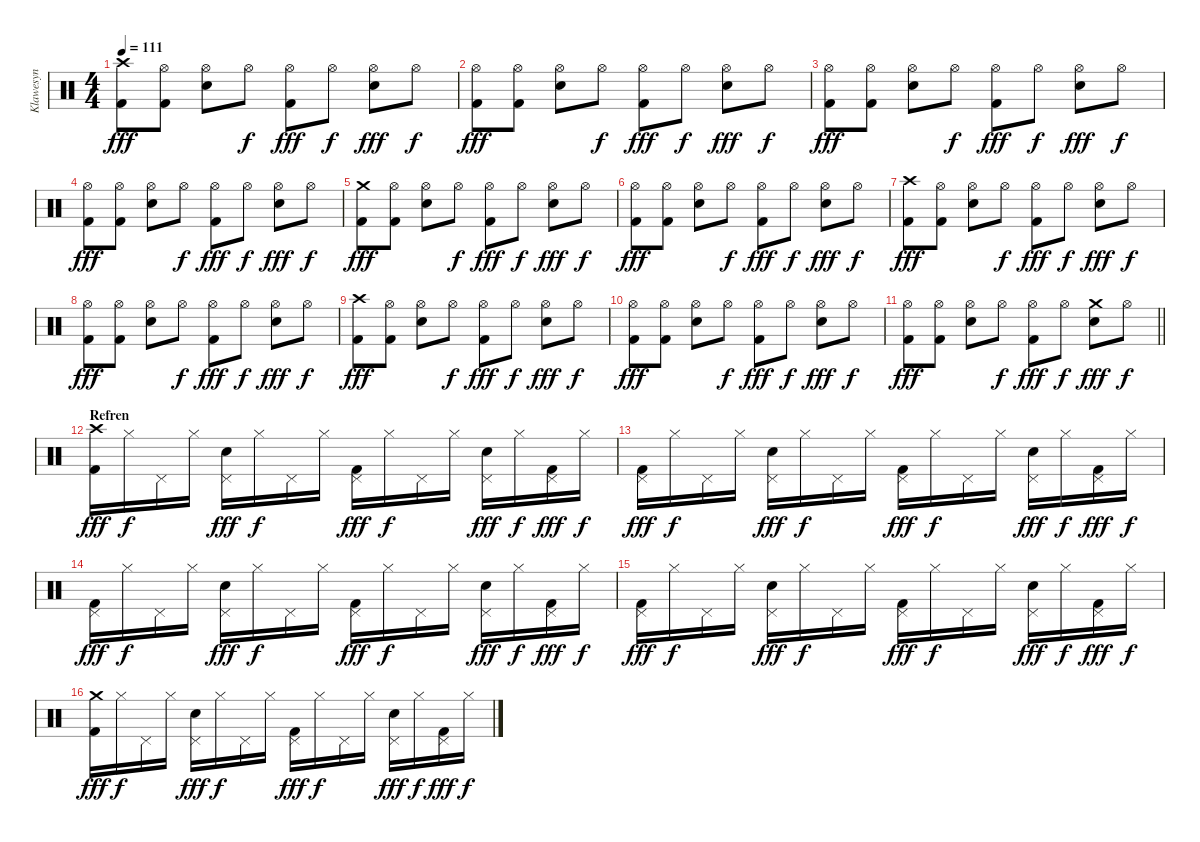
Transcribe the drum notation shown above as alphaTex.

\track ("Klawesyn" "Klawesyn") {instrument percussion}
\staff {score}
\articulation defaults
\ts (4 4)
\tempo 111
\clef neutral
\ks c
("Crash high (hit)" "Kick (hit) 2").8{dy fff} ("Hi-Hat (open)" "Kick (hit) 2").8 ("Hi-Hat (open)" "Snare (hit) 2").8 "Hi-Hat (open)".8{dy f} ("Hi-Hat (open)" "Kick (hit) 2").8{dy fff} "Hi-Hat (open)".8{dy f} ("Hi-Hat (open)" "Snare (hit) 2").8{dy fff} "Hi-Hat (open)".8{dy f} |
("Hi-Hat (open)" "Kick (hit) 2").8{dy fff} ("Hi-Hat (open)" "Kick (hit) 2").8 ("Hi-Hat (open)" "Snare (hit) 2").8 "Hi-Hat (open)".8{dy f} ("Hi-Hat (open)" "Kick (hit) 2").8{dy fff} "Hi-Hat (open)".8{dy f} ("Hi-Hat (open)" "Snare (hit) 2").8{dy fff} "Hi-Hat (open)".8{dy f} |
("Hi-Hat (open)" "Kick (hit) 2").8{dy fff} ("Hi-Hat (open)" "Kick (hit) 2").8 ("Hi-Hat (open)" "Snare (hit) 2").8 "Hi-Hat (open)".8{dy f} ("Hi-Hat (open)" "Kick (hit) 2").8{dy fff} "Hi-Hat (open)".8{dy f} ("Hi-Hat (open)" "Snare (hit) 2").8{dy fff} "Hi-Hat (open)".8{dy f} |
("Hi-Hat (open)" "Kick (hit) 2").8{dy fff} ("Hi-Hat (open)" "Kick (hit) 2").8 ("Hi-Hat (open)" "Snare (hit) 2").8 "Hi-Hat (open)".8{dy f} ("Hi-Hat (open)" "Kick (hit) 2").8{dy fff} "Hi-Hat (open)".8{dy f} ("Hi-Hat (open)" "Snare (hit) 2").8{dy fff} "Hi-Hat (open)".8{dy f} |
("Crash medium (hit)" "Kick (hit) 2").8{dy fff} ("Hi-Hat (open)" "Kick (hit) 2").8 ("Hi-Hat (open)" "Snare (hit) 2").8 "Hi-Hat (open)".8{dy f} ("Hi-Hat (open)" "Kick (hit) 2").8{dy fff} "Hi-Hat (open)".8{dy f} ("Hi-Hat (open)" "Snare (hit) 2").8{dy fff} "Hi-Hat (open)".8{dy f} |
("Hi-Hat (open)" "Kick (hit) 2").8{dy fff} ("Hi-Hat (open)" "Kick (hit) 2").8 ("Hi-Hat (open)" "Snare (hit) 2").8 "Hi-Hat (open)".8{dy f} ("Hi-Hat (open)" "Kick (hit) 2").8{dy fff} "Hi-Hat (open)".8{dy f} ("Hi-Hat (open)" "Snare (hit) 2").8{dy fff} "Hi-Hat (open)".8{dy f} |
("Crash high (hit)" "Kick (hit) 2").8{dy fff} ("Hi-Hat (open)" "Kick (hit) 2").8 ("Hi-Hat (open)" "Snare (hit) 2").8 "Hi-Hat (open)".8{dy f} ("Hi-Hat (open)" "Kick (hit) 2").8{dy fff} "Hi-Hat (open)".8{dy f} ("Hi-Hat (open)" "Snare (hit) 2").8{dy fff} "Hi-Hat (open)".8{dy f} |
("Hi-Hat (open)" "Kick (hit) 2").8{dy fff} ("Hi-Hat (open)" "Kick (hit) 2").8 ("Hi-Hat (open)" "Snare (hit) 2").8 "Hi-Hat (open)".8{dy f} ("Hi-Hat (open)" "Kick (hit) 2").8{dy fff} "Hi-Hat (open)".8{dy f} ("Hi-Hat (open)" "Snare (hit) 2").8{dy fff} "Hi-Hat (open)".8{dy f} |
("Crash high (hit)" "Kick (hit) 2").8{dy fff} ("Hi-Hat (open)" "Kick (hit) 2").8 ("Hi-Hat (open)" "Snare (hit) 2").8 "Hi-Hat (open)".8{dy f} ("Hi-Hat (open)" "Kick (hit) 2").8{dy fff} "Hi-Hat (open)".8{dy f} ("Hi-Hat (open)" "Snare (hit) 2").8{dy fff} "Hi-Hat (open)".8{dy f} |
("Hi-Hat (open)" "Kick (hit) 2").8{dy fff} ("Hi-Hat (open)" "Kick (hit) 2").8 ("Hi-Hat (open)" "Snare (hit) 2").8 "Hi-Hat (open)".8{dy f} ("Hi-Hat (open)" "Kick (hit) 2").8{dy fff} "Hi-Hat (open)".8{dy f} ("Hi-Hat (open)" "Snare (hit) 2").8{dy fff} "Hi-Hat (open)".8{dy f} |
\barLineRight lightlight
("Hi-Hat (open)" "Kick (hit) 2").8{dy fff} ("Hi-Hat (open)" "Kick (hit) 2").8 ("Hi-Hat (open)" "Snare (hit) 2").8 "Hi-Hat (open)".8{dy f} ("Hi-Hat (open)" "Kick (hit) 2").8{dy fff} "Hi-Hat (open)".8{dy f} ("Crash medium (hit)" "Snare (hit) 2").8{dy fff} "Hi-Hat (open)".8{dy f} |
\section ("" "Refren")
("Crash high (hit)" "Kick (hit) 2").16{dy fff} "Hi-Hat (closed)".16{dy f} "Pedal Hi-Hat (hit)".16 "Hi-Hat (closed)".16 ("Pedal Hi-Hat (hit)" "Snare (hit) 2").16{dy fff} "Hi-Hat (closed)".16{dy f} "Pedal Hi-Hat (hit)".16 "Hi-Hat (closed)".16 ("Pedal Hi-Hat (hit)" "Kick (hit) 2").16{dy fff} "Hi-Hat (closed)".16{dy f} "Pedal Hi-Hat (hit)".16 "Hi-Hat (closed)".16 ("Pedal Hi-Hat (hit)" "Snare (hit) 2").16{dy fff} "Hi-Hat (closed)".16{dy f} ("Pedal Hi-Hat (hit)" "Kick (hit) 2").16{dy fff} "Hi-Hat (closed)".16{dy f} |
("Pedal Hi-Hat (hit)" "Kick (hit) 2").16{dy fff} "Hi-Hat (closed)".16{dy f} "Pedal Hi-Hat (hit)".16 "Hi-Hat (closed)".16 ("Pedal Hi-Hat (hit)" "Snare (hit) 2").16{dy fff} "Hi-Hat (closed)".16{dy f} "Pedal Hi-Hat (hit)".16 "Hi-Hat (closed)".16 ("Pedal Hi-Hat (hit)" "Kick (hit) 2").16{dy fff} "Hi-Hat (closed)".16{dy f} "Pedal Hi-Hat (hit)".16 "Hi-Hat (closed)".16 ("Pedal Hi-Hat (hit)" "Snare (hit) 2").16{dy fff} "Hi-Hat (closed)".16{dy f} ("Pedal Hi-Hat (hit)" "Kick (hit) 2").16{dy fff} "Hi-Hat (closed)".16{dy f} |
("Pedal Hi-Hat (hit)" "Kick (hit) 2").16{dy fff} "Hi-Hat (closed)".16{dy f} "Pedal Hi-Hat (hit)".16 "Hi-Hat (closed)".16 ("Pedal Hi-Hat (hit)" "Snare (hit) 2").16{dy fff} "Hi-Hat (closed)".16{dy f} "Pedal Hi-Hat (hit)".16 "Hi-Hat (closed)".16 ("Pedal Hi-Hat (hit)" "Kick (hit) 2").16{dy fff} "Hi-Hat (closed)".16{dy f} "Pedal Hi-Hat (hit)".16 "Hi-Hat (closed)".16 ("Pedal Hi-Hat (hit)" "Snare (hit) 2").16{dy fff} "Hi-Hat (closed)".16{dy f} ("Pedal Hi-Hat (hit)" "Kick (hit) 2").16{dy fff} "Hi-Hat (closed)".16{dy f} |
("Pedal Hi-Hat (hit)" "Kick (hit) 2").16{dy fff} "Hi-Hat (closed)".16{dy f} "Pedal Hi-Hat (hit)".16 "Hi-Hat (closed)".16 ("Pedal Hi-Hat (hit)" "Snare (hit) 2").16{dy fff} "Hi-Hat (closed)".16{dy f} "Pedal Hi-Hat (hit)".16 "Hi-Hat (closed)".16 ("Pedal Hi-Hat (hit)" "Kick (hit) 2").16{dy fff} "Hi-Hat (closed)".16{dy f} "Pedal Hi-Hat (hit)".16 "Hi-Hat (closed)".16 ("Pedal Hi-Hat (hit)" "Snare (hit) 2").16{dy fff} "Hi-Hat (closed)".16{dy f} ("Pedal Hi-Hat (hit)" "Kick (hit) 2").16{dy fff} "Hi-Hat (closed)".16{dy f} |
("Crash medium (hit)" "Kick (hit) 2").16{dy fff} "Hi-Hat (closed)".16{dy f} "Pedal Hi-Hat (hit)".16 "Hi-Hat (closed)".16 ("Pedal Hi-Hat (hit)" "Snare (hit) 2").16{dy fff} "Hi-Hat (closed)".16{dy f} "Pedal Hi-Hat (hit)".16 "Hi-Hat (closed)".16 ("Pedal Hi-Hat (hit)" "Kick (hit) 2").16{dy fff} "Hi-Hat (closed)".16{dy f} "Pedal Hi-Hat (hit)".16 "Hi-Hat (closed)".16 ("Pedal Hi-Hat (hit)" "Snare (hit) 2").16{dy fff} "Hi-Hat (closed)".16{dy f} ("Pedal Hi-Hat (hit)" "Kick (hit) 2").16{dy fff} "Hi-Hat (closed)".16{dy f}
